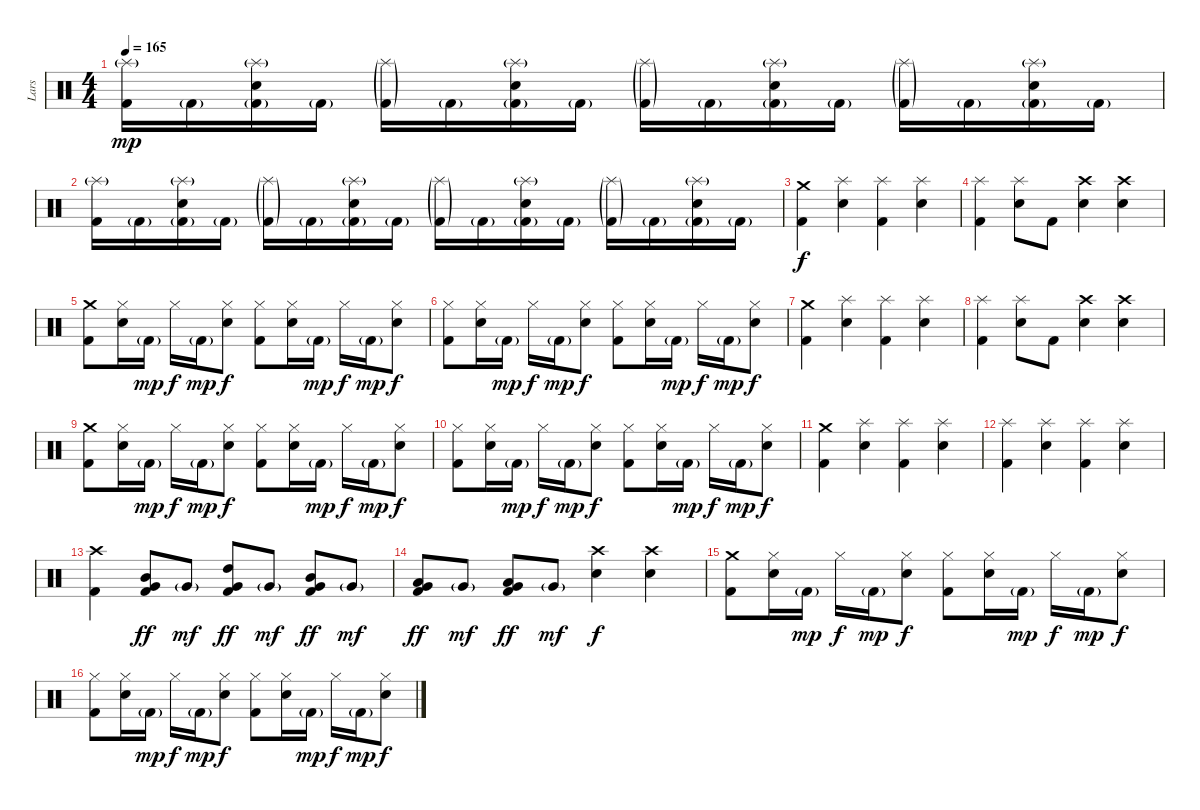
\track ("Lars" "Lars") {instrument percussion}
\staff {score}
\articulation defaults
\ts (4 4)
\tempo 165
\clef neutral
\ks c
("Splash (hit)"{g} "Kick (hit) 2").16{dy mp} "Kick (hit) 2"{g}.16 ("Splash (hit)"{g} "Snare (hit) 2" "Kick (hit) 2"{g}).16 "Kick (hit) 2"{g}.16 ("Splash (hit)"{g} "Kick (hit) 2"{g}).16 "Kick (hit) 2"{g}.16 ("Splash (hit)"{g} "Snare (hit) 2" "Kick (hit) 2"{g}).16 "Kick (hit) 2"{g}.16 ("Splash (hit)"{g} "Kick (hit) 2"{g}).16 "Kick (hit) 2"{g}.16 ("Splash (hit)"{g} "Snare (hit) 2" "Kick (hit) 2"{g}).16 "Kick (hit) 2"{g}.16 ("Splash (hit)"{g} "Kick (hit) 2"{g}).16 "Kick (hit) 2"{g}.16 ("Splash (hit)"{g} "Snare (hit) 2" "Kick (hit) 2"{g}).16 "Kick (hit) 2"{g}.16 |
("Splash (hit)"{g} "Kick (hit) 2").16 "Kick (hit) 2"{g}.16 ("Splash (hit)"{g} "Snare (hit) 2" "Kick (hit) 2"{g}).16 "Kick (hit) 2"{g}.16 ("Splash (hit)"{g} "Kick (hit) 2"{g}).16 "Kick (hit) 2"{g}.16 ("Splash (hit)"{g} "Snare (hit) 2" "Kick (hit) 2"{g}).16 "Kick (hit) 2"{g}.16 ("Splash (hit)"{g} "Kick (hit) 2"{g}).16 "Kick (hit) 2"{g}.16 ("Splash (hit)"{g} "Snare (hit) 2" "Kick (hit) 2"{g}).16 "Kick (hit) 2"{g}.16 ("Splash (hit)"{g} "Kick (hit) 2"{g}).16 "Kick (hit) 2"{g}.16 ("Splash (hit)"{g} "Snare (hit) 2" "Kick (hit) 2"{g}).16 "Kick (hit) 2"{g}.16 |
("Crash medium (hit)" "Kick (hit) 2").4{dy f} ("Splash (hit)" "Snare (hit) 2").4 ("Splash (hit)" "Kick (hit) 2").4 ("Splash (hit)" "Snare (hit) 2").4 |
("Splash (hit)" "Kick (hit) 2").4 ("Splash (hit)" "Snare (hit) 2").8 "Kick (hit) 2".8 ("Crash high (hit)" "Snare (hit) 2").4 ("Crash high (hit)" "Snare (hit) 2").4 |
("Crash medium (hit)" "Kick (hit) 2").8 ("Hi-Hat (closed)" "Snare (hit) 2").16 "Kick (hit) 2"{g}.16{dy mp} "Hi-Hat (closed)".16{dy f} "Kick (hit) 2"{g}.16{dy mp} ("Hi-Hat (closed)" "Snare (hit) 2").8{dy f} ("Hi-Hat (closed)" "Kick (hit) 2").8 ("Hi-Hat (closed)" "Snare (hit) 2").16 "Kick (hit) 2"{g}.16{dy mp} "Hi-Hat (closed)".16{dy f} "Kick (hit) 2"{g}.16{dy mp} ("Hi-Hat (closed)" "Snare (hit) 2").8{dy f} |
("Hi-Hat (closed)" "Kick (hit) 2").8 ("Hi-Hat (closed)" "Snare (hit) 2").16 "Kick (hit) 2"{g}.16{dy mp} "Hi-Hat (closed)".16{dy f} "Kick (hit) 2"{g}.16{dy mp} ("Hi-Hat (closed)" "Snare (hit) 2").8{dy f} ("Hi-Hat (closed)" "Kick (hit) 2").8 ("Hi-Hat (closed)" "Snare (hit) 2").16 "Kick (hit) 2"{g}.16{dy mp} "Hi-Hat (closed)".16{dy f} "Kick (hit) 2"{g}.16{dy mp} ("Hi-Hat (closed)" "Snare (hit) 2").8{dy f} |
("Crash medium (hit)" "Kick (hit) 2").4 ("Splash (hit)" "Snare (hit) 2").4 ("Splash (hit)" "Kick (hit) 2").4 ("Splash (hit)" "Snare (hit) 2").4 |
("Splash (hit)" "Kick (hit) 2").4 ("Splash (hit)" "Snare (hit) 2").8 "Kick (hit) 2".8 ("Crash high (hit)" "Snare (hit) 2").4 ("Crash high (hit)" "Snare (hit) 2").4 |
("Crash medium (hit)" "Kick (hit) 2").8 ("Hi-Hat (closed)" "Snare (hit) 2").16 "Kick (hit) 2"{g}.16{dy mp} "Hi-Hat (closed)".16{dy f} "Kick (hit) 2"{g}.16{dy mp} ("Hi-Hat (closed)" "Snare (hit) 2").8{dy f} ("Hi-Hat (closed)" "Kick (hit) 2").8 ("Hi-Hat (closed)" "Snare (hit) 2").16 "Kick (hit) 2"{g}.16{dy mp} "Hi-Hat (closed)".16{dy f} "Kick (hit) 2"{g}.16{dy mp} ("Hi-Hat (closed)" "Snare (hit) 2").8{dy f} |
("Hi-Hat (closed)" "Kick (hit) 2").8 ("Hi-Hat (closed)" "Snare (hit) 2").16 "Kick (hit) 2"{g}.16{dy mp} "Hi-Hat (closed)".16{dy f} "Kick (hit) 2"{g}.16{dy mp} ("Hi-Hat (closed)" "Snare (hit) 2").8{dy f} ("Hi-Hat (closed)" "Kick (hit) 2").8 ("Hi-Hat (closed)" "Snare (hit) 2").16 "Kick (hit) 2"{g}.16{dy mp} "Hi-Hat (closed)".16{dy f} "Kick (hit) 2"{g}.16{dy mp} ("Hi-Hat (closed)" "Snare (hit) 2").8{dy f} |
("Crash medium (hit)" "Kick (hit) 2").4 ("Splash (hit)" "Snare (hit) 2").4 ("Splash (hit)" "Kick (hit) 2").4 ("Splash (hit)" "Snare (hit) 2").4 |
("Splash (hit)" "Kick (hit) 2").4 ("Splash (hit)" "Snare (hit) 2").4 ("Splash (hit)" "Kick (hit) 2").4 ("Splash (hit)" "Snare (hit) 2").4 |
("Crash high (hit)" "Kick (hit) 2").4 ("Mid Tom (hit)" "Very Low Tom (hit)" "Kick (hit) 2").8{dy ff} "Very Low Tom (hit)"{g}.8{dy mf} ("High Tom (hit)" "Very Low Tom (hit)" "Kick (hit) 2").8{dy ff} "Very Low Tom (hit)"{g}.8{dy mf} ("Mid Tom (hit)" "Very Low Tom (hit)" "Kick (hit) 2").8{dy ff} "Very Low Tom (hit)"{g}.8{dy mf} |
("Low Tom (hit)" "Very Low Tom (hit)" "Kick (hit) 2").8{dy ff} "Very Low Tom (hit)"{g}.8{dy mf} ("Low Tom (hit)" "Very Low Tom (hit)" "Kick (hit) 2").8{dy ff} "Very Low Tom (hit)"{g}.8{dy mf} ("Crash high (hit)" "Snare (hit) 2").4{dy f} ("Crash high (hit)" "Snare (hit) 2").4 |
("Crash medium (hit)" "Kick (hit) 2").8 ("Hi-Hat (closed)" "Snare (hit) 2").16 "Kick (hit) 2"{g}.16{dy mp} "Hi-Hat (closed)".16{dy f} "Kick (hit) 2"{g}.16{dy mp} ("Hi-Hat (closed)" "Snare (hit) 2").8{dy f} ("Hi-Hat (closed)" "Kick (hit) 2").8 ("Hi-Hat (closed)" "Snare (hit) 2").16 "Kick (hit) 2"{g}.16{dy mp} "Hi-Hat (closed)".16{dy f} "Kick (hit) 2"{g}.16{dy mp} ("Hi-Hat (closed)" "Snare (hit) 2").8{dy f} |
("Hi-Hat (closed)" "Kick (hit) 2").8 ("Hi-Hat (closed)" "Snare (hit) 2").16 "Kick (hit) 2"{g}.16{dy mp} "Hi-Hat (closed)".16{dy f} "Kick (hit) 2"{g}.16{dy mp} ("Hi-Hat (closed)" "Snare (hit) 2").8{dy f} ("Hi-Hat (closed)" "Kick (hit) 2").8 ("Hi-Hat (closed)" "Snare (hit) 2").16 "Kick (hit) 2"{g}.16{dy mp} "Hi-Hat (closed)".16{dy f} "Kick (hit) 2"{g}.16{dy mp} ("Hi-Hat (closed)" "Snare (hit) 2").8{dy f}
